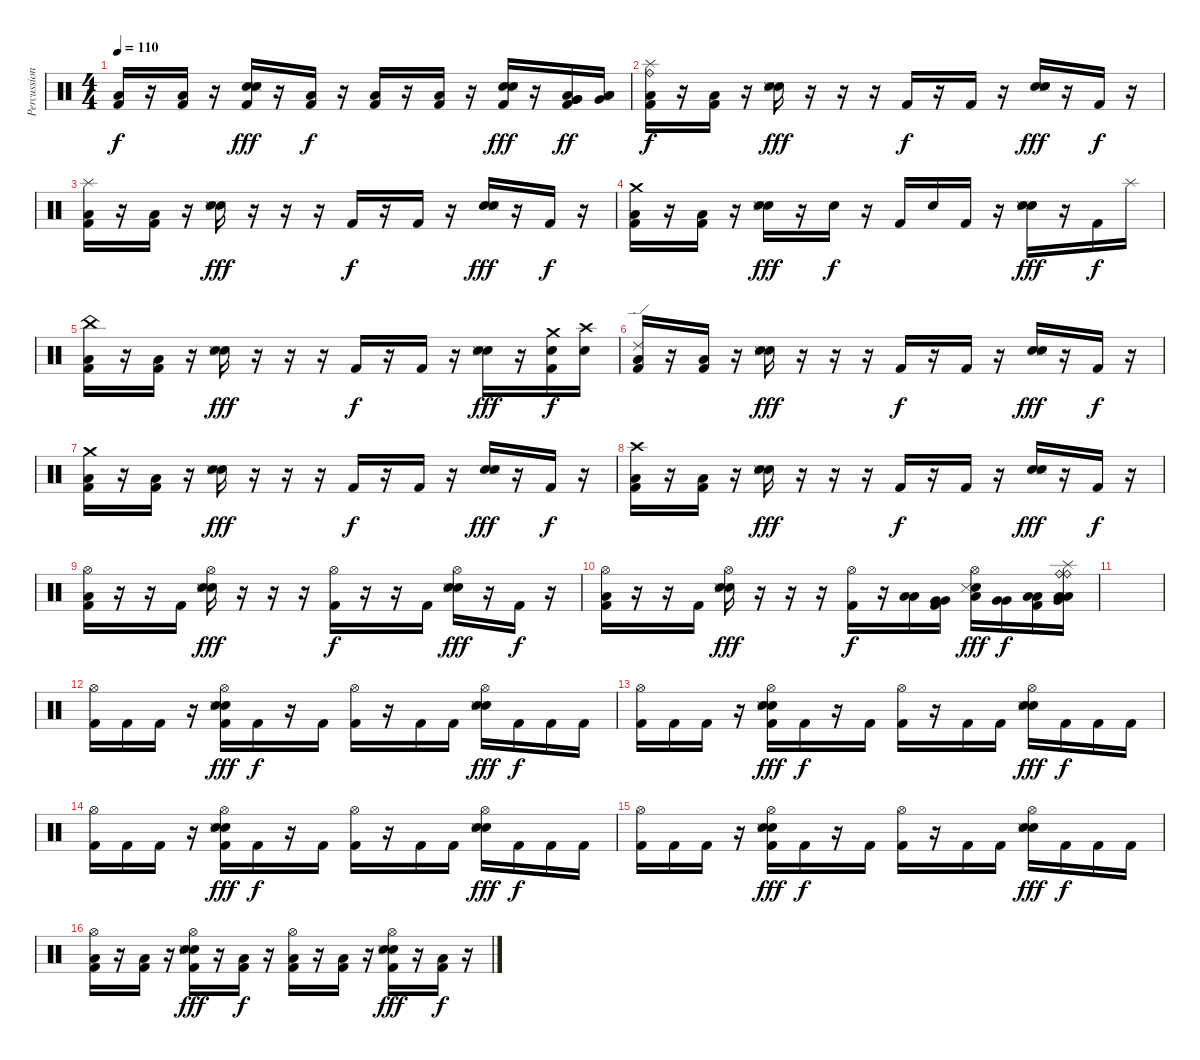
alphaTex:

\track ("Percussion" "Percussion") {instrument percussion}
\staff {score}
\articulation defaults
\ts (4 4)
\tempo 110
\clef neutral
\ks c
("Low Floor Tom (hit)" "Kick (hit) 2").16{dy f} r.16 ("Low Floor Tom (hit)" "Kick (hit) 2").16 r.16 ("Electric Snare (hit)" "Electric Snare (hit)" "Snare (side stick) 3" "Kick (hit) 2").16{dy fff} r.16 ("Low Floor Tom (hit)" "Kick (hit) 2").16{dy f} r.16 ("Low Floor Tom (hit)" "Kick (hit) 2").16 r.16 ("Low Floor Tom (hit)" "Kick (hit) 2").16 r.16 ("Electric Snare (hit)" "Electric Snare (hit)" "Snare (side stick) 3" "Kick (hit) 2").16{dy fff} r.16 ("Low Tom (hit)" "Very Low Tom (hit)" "Very Low Tom (hit)" "Kick (hit) 2").16{dy ff} ("Very Low Tom (hit)" "Low Floor Tom (hit)" "Low Floor Tom (hit)").16 |
("Splash (hit)" "Ride (bell)" "Low Floor Tom (hit)" "Kick (hit) 2").16{dy f} r.16 ("Low Floor Tom (hit)" "Kick (hit) 2").16 r.16 ("Electric Snare (hit)" "Electric Snare (hit)" "Snare (side stick) 3").16{dy fff} r.16 r.16 r.16 "Kick (hit) 2".16{dy f} r.16 "Kick (hit) 2".16 r.16 ("Electric Snare (hit)" "Electric Snare (hit)" "Snare (side stick) 3").16{dy fff} r.16 "Kick (hit) 2".16{dy f} r.16 |
("Splash (hit)" "Low Floor Tom (hit)" "Kick (hit) 2").16 r.16 ("Low Floor Tom (hit)" "Kick (hit) 2").16 r.16 ("Electric Snare (hit)" "Electric Snare (hit)" "Snare (side stick) 3").16{dy fff} r.16 r.16 r.16 "Kick (hit) 2".16{dy f} r.16 "Kick (hit) 2".16 r.16 ("Electric Snare (hit)" "Electric Snare (hit)" "Snare (side stick) 3").16{dy fff} r.16 "Kick (hit) 2".16{dy f} r.16 |
("Crash medium (hit)" "Low Floor Tom (hit)" "Kick (hit) 2").16 r.16 ("Low Floor Tom (hit)" "Kick (hit) 2").16 r.16 ("Electric Snare (hit)" "Electric Snare (hit)" "Snare (side stick) 3").16{dy fff} r.16 "Electric Snare (hit)".16{dy f} r.16 "Kick (hit) 2".16 "Electric Snare (hit)".16 "Kick (hit) 2".16 r.16 ("Electric Snare (hit)" "Electric Snare (hit)" "Snare (side stick) 3").16{dy fff} r.16 "Kick (hit) 2".16{dy f} "Splash (hit)".16 |
("China (hit)" "Low Floor Tom (hit)" "Kick (hit) 2").16 r.16 ("Low Floor Tom (hit)" "Kick (hit) 2").16 r.16 ("Electric Snare (hit)" "Electric Snare (hit)" "Snare (side stick) 3").16{dy fff} r.16 r.16 r.16 "Kick (hit) 2".16{dy f} r.16 "Kick (hit) 2".16 r.16 ("Electric Snare (hit)" "Electric Snare (hit)" "Snare (side stick) 3").16{dy fff} r.16 ("Crash medium (hit)" "Electric Snare (hit)" "Kick (hit) 2").16{dy f} ("Crash high (hit)" "Electric Snare (hit)").16 |
("Ride (edge) 2" "Low Floor Tom (hit)" "Kick (hit) 2").16 r.16 ("Low Floor Tom (hit)" "Kick (hit) 2").16 r.16 ("Electric Snare (hit)" "Electric Snare (hit)" "Snare (side stick) 3").16{dy fff} r.16 r.16 r.16 "Kick (hit) 2".16{dy f} r.16 "Kick (hit) 2".16 r.16 ("Electric Snare (hit)" "Electric Snare (hit)" "Snare (side stick) 3").16{dy fff} r.16 "Kick (hit) 2".16{dy f} r.16 |
("Crash medium (hit)" "Low Floor Tom (hit)" "Kick (hit) 2").16 r.16 ("Low Floor Tom (hit)" "Kick (hit) 2").16 r.16 ("Electric Snare (hit)" "Electric Snare (hit)" "Snare (side stick) 3").16{dy fff} r.16 r.16 r.16 "Kick (hit) 2".16{dy f} r.16 "Kick (hit) 2".16 r.16 ("Electric Snare (hit)" "Electric Snare (hit)" "Snare (side stick) 3").16{dy fff} r.16 "Kick (hit) 2".16{dy f} r.16 |
("Crash high (hit)" "Low Floor Tom (hit)" "Kick (hit) 2").16 r.16 ("Low Floor Tom (hit)" "Kick (hit) 2").16 r.16 ("Electric Snare (hit)" "Electric Snare (hit)" "Snare (side stick) 3").16{dy fff} r.16 r.16 r.16 "Kick (hit) 2".16{dy f} r.16 "Kick (hit) 2".16 r.16 ("Electric Snare (hit)" "Electric Snare (hit)" "Snare (side stick) 3").16{dy fff} r.16 "Kick (hit) 2".16{dy f} r.16 |
("Hi-Hat (open)" "Low Floor Tom (hit)" "Kick (hit) 2").16 r.16 r.16 "Kick (hit) 2".16 ("Hi-Hat (open)" "Electric Snare (hit)" "Electric Snare (hit)" "Snare (side stick) 3").16{dy fff} r.16 r.16 r.16 ("Hi-Hat (open)" "Kick (hit) 2").16{dy f} r.16 r.16 "Kick (hit) 2".16 ("Hi-Hat (open)" "Electric Snare (hit)" "Electric Snare (hit)" "Snare (side stick) 3").16{dy fff} r.16 "Kick (hit) 2".16{dy f} r.16 |
("Hi-Hat (open)" "Low Floor Tom (hit)" "Kick (hit) 2").16 r.16 r.16 "Kick (hit) 2".16 ("Hi-Hat (open)" "Electric Snare (hit)" "Electric Snare (hit)" "Snare (side stick) 3").16{dy fff} r.16 r.16 r.16 ("Hi-Hat (open)" "Kick (hit) 2").16{dy f} r.16 ("Low Tom (hit)" "Low Tom (hit)").16 ("Very Low Tom (hit)" "Very Low Tom (hit)" "Kick (hit) 2").16 ("Hi-Hat (open)" "Electric Snare (hit)" "Low Tom (hit)" "Snare (side stick) 3").16{dy fff} ("Very Low Tom (hit)" "Very Low Tom (hit)").16{dy f} ("Low Floor Tom (hit)" "Low Floor Tom (hit)" "Kick (hit) 2").16 ("Ride (bell)" "Low Tom (hit)" "Very Low Tom (hit)" "Low Floor Tom (hit)" "Splash (hit)" "Ride (bell)").16 |
|
("Hi-Hat (open)" "Kick (hit) 2").16 "Kick (hit) 2".16 "Kick (hit) 2".16 r.16 ("Hi-Hat (open)" "Electric Snare (hit)" "Electric Snare (hit)" "Snare (side stick) 3" "Kick (hit) 2").16{dy fff} "Kick (hit) 2".16{dy f} r.16 "Kick (hit) 2".16 ("Hi-Hat (open)" "Kick (hit) 2").16 r.16 "Kick (hit) 2".16 "Kick (hit) 2".16 ("Hi-Hat (open)" "Electric Snare (hit)" "Electric Snare (hit)" "Snare (side stick) 3").16{dy fff} "Kick (hit) 2".16{dy f} "Kick (hit) 2".16 "Kick (hit) 2".16 |
("Hi-Hat (open)" "Kick (hit) 2").16 "Kick (hit) 2".16 "Kick (hit) 2".16 r.16 ("Hi-Hat (open)" "Electric Snare (hit)" "Electric Snare (hit)" "Snare (side stick) 3" "Kick (hit) 2").16{dy fff} "Kick (hit) 2".16{dy f} r.16 "Kick (hit) 2".16 ("Hi-Hat (open)" "Kick (hit) 2").16 r.16 "Kick (hit) 2".16 "Kick (hit) 2".16 ("Hi-Hat (open)" "Electric Snare (hit)" "Electric Snare (hit)" "Snare (side stick) 3").16{dy fff} "Kick (hit) 2".16{dy f} "Kick (hit) 2".16 "Kick (hit) 2".16 |
("Hi-Hat (open)" "Kick (hit) 2").16 "Kick (hit) 2".16 "Kick (hit) 2".16 r.16 ("Hi-Hat (open)" "Electric Snare (hit)" "Electric Snare (hit)" "Snare (side stick) 3" "Kick (hit) 2").16{dy fff} "Kick (hit) 2".16{dy f} r.16 "Kick (hit) 2".16 ("Hi-Hat (open)" "Kick (hit) 2").16 r.16 "Kick (hit) 2".16 "Kick (hit) 2".16 ("Hi-Hat (open)" "Electric Snare (hit)" "Electric Snare (hit)" "Snare (side stick) 3").16{dy fff} "Kick (hit) 2".16{dy f} "Kick (hit) 2".16 "Kick (hit) 2".16 |
("Hi-Hat (open)" "Kick (hit) 2").16 "Kick (hit) 2".16 "Kick (hit) 2".16 r.16 ("Hi-Hat (open)" "Electric Snare (hit)" "Electric Snare (hit)" "Snare (side stick) 3" "Kick (hit) 2").16{dy fff} "Kick (hit) 2".16{dy f} r.16 "Kick (hit) 2".16 ("Hi-Hat (open)" "Kick (hit) 2").16 r.16 "Kick (hit) 2".16 "Kick (hit) 2".16 ("Hi-Hat (open)" "Electric Snare (hit)" "Electric Snare (hit)" "Snare (side stick) 3").16{dy fff} "Kick (hit) 2".16{dy f} "Kick (hit) 2".16 "Kick (hit) 2".16 |
("Hi-Hat (open)" "Low Floor Tom (hit)" "Kick (hit) 2").16 r.16 ("Low Floor Tom (hit)" "Kick (hit) 2").16 r.16 ("Hi-Hat (open)" "Electric Snare (hit)" "Electric Snare (hit)" "Snare (side stick) 3" "Kick (hit) 2").16{dy fff} r.16 ("Low Floor Tom (hit)" "Kick (hit) 2").16{dy f} r.16 ("Hi-Hat (open)" "Low Floor Tom (hit)" "Kick (hit) 2").16 r.16 ("Low Floor Tom (hit)" "Kick (hit) 2").16 r.16 ("Hi-Hat (open)" "Electric Snare (hit)" "Electric Snare (hit)" "Snare (side stick) 3" "Kick (hit) 2").16{dy fff} r.16 ("Low Floor Tom (hit)" "Kick (hit) 2").16{dy f} r.16
